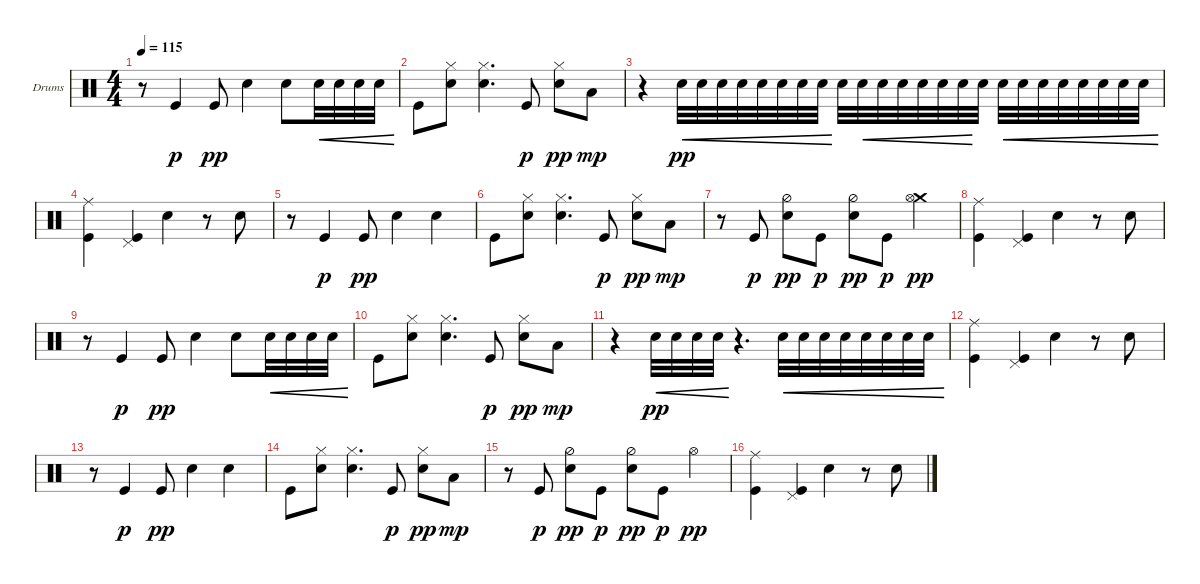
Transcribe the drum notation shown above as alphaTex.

\defaultSystemsLayout 4
\bracketExtendMode groupsimilarinstruments
\firstSystemTrackNameOrientation horizontal
\otherSystemsTrackNameOrientation horizontal
\track ("Drumkit" "Drums") {instrument percussion}
\staff {score}
\articulation defaults
\ts (4 4)
\tempo 115
\clef neutral
\ks c
r.8{dy pp} "Kick (hit)".4{dy p} "Kick (hit)".8{dy pp} "Snare (hit) 2".4 "Snare (hit) 2".8 "Snare (hit) 2".32{cre} "Snare (hit) 2".32{cre} "Snare (hit) 2".32{cre} "Snare (hit) 2".32{cre} |
"Kick (hit)".8 ("Snare (hit) 2" "Hi-Hat (closed)").8 ("Snare (hit) 2" "Hi-Hat (closed)").4{d} "Kick (hit)".8{dy p} ("Snare (hit) 2" "Hi-Hat (closed)").8{dy pp} "Low Tom (hit)".8{dy mp} |
r.4 "Snare (hit) 2".32{cre dy pp} "Snare (hit) 2".32{cre} "Snare (hit) 2".32{cre} "Snare (hit) 2".32{cre} "Snare (hit) 2".32{cre} "Snare (hit) 2".32{cre} "Snare (hit) 2".32{cre} "Snare (hit) 2".32{cre} "Snare (hit) 2".32 "Snare (hit) 2".32{cre} "Snare (hit) 2".32{cre} "Snare (hit) 2".32{cre} "Snare (hit) 2".32{cre} "Snare (hit) 2".32{cre} "Snare (hit) 2".32{cre} "Snare (hit) 2".32 "Snare (hit) 2".32{cre} "Snare (hit) 2".32{cre} "Snare (hit) 2".32{cre} "Snare (hit) 2".32{cre} "Snare (hit) 2".32{cre} "Snare (hit) 2".32{cre} "Snare (hit) 2".32{cre} "Snare (hit) 2".32{cre} |
("Kick (hit)" "Ride (middle)").4 ("Kick (hit)" "Pedal Hi-Hat (hit)").4 "Snare (hit) 2".4 r.8 "Snare (hit) 2".8 |
r.8 "Kick (hit)".4{dy p} "Kick (hit)".8{dy pp} "Snare (hit) 2".4 "Snare (hit) 2".4 |
"Kick (hit)".8 ("Snare (hit) 2" "Hi-Hat (closed)").8 ("Snare (hit) 2" "Hi-Hat (closed)").4{d} "Kick (hit)".8{dy p} ("Snare (hit) 2" "Hi-Hat (closed)").8{dy pp} "Low Tom (hit)".8{dy mp} |
r.8 "Kick (hit)".8{dy p} ("Snare (hit) 2" "Hi-Hat (half)").8{dy pp} "Kick (hit)".8{dy p} ("Snare (hit) 2" "Hi-Hat (half)").8{dy pp} "Kick (hit)".8{dy p} ("Crash medium (hit)" "Hi-Hat (open)").4{dy pp} |
("Kick (hit)" "Ride (middle)").4 ("Kick (hit)" "Pedal Hi-Hat (hit)").4 "Snare (hit) 2".4 r.8 "Snare (hit) 2".8 |
r.8 "Kick (hit)".4{dy p} "Kick (hit)".8{dy pp} "Snare (hit) 2".4 "Snare (hit) 2".8 "Snare (hit) 2".32{cre} "Snare (hit) 2".32{cre} "Snare (hit) 2".32{cre} "Snare (hit) 2".32{cre} |
"Kick (hit)".8 ("Snare (hit) 2" "Hi-Hat (closed)").8 ("Snare (hit) 2" "Hi-Hat (closed)").4{d} "Kick (hit)".8{dy p} ("Snare (hit) 2" "Hi-Hat (closed)").8{dy pp} "Low Tom (hit)".8{dy mp} |
r.4 "Snare (hit) 2".32{cre dy pp} "Snare (hit) 2".32{cre} "Snare (hit) 2".32{cre} "Snare (hit) 2".32{cre} r.4{d} "Snare (hit) 2".32{cre} "Snare (hit) 2".32{cre} "Snare (hit) 2".32{cre} "Snare (hit) 2".32{cre} "Snare (hit) 2".32{cre} "Snare (hit) 2".32{cre} "Snare (hit) 2".32{cre} "Snare (hit) 2".32{cre} |
("Kick (hit)" "Ride (middle)").4 ("Kick (hit)" "Pedal Hi-Hat (hit)").4 "Snare (hit) 2".4 r.8 "Snare (hit) 2".8 |
r.8 "Kick (hit)".4{dy p} "Kick (hit)".8{dy pp} "Snare (hit) 2".4 "Snare (hit) 2".4 |
"Kick (hit)".8 ("Snare (hit) 2" "Hi-Hat (closed)").8 ("Snare (hit) 2" "Hi-Hat (closed)").4{d} "Kick (hit)".8{dy p} ("Snare (hit) 2" "Hi-Hat (closed)").8{dy pp} "Low Tom (hit)".8{dy mp} |
r.8 "Kick (hit)".8{dy p} ("Snare (hit) 2" "Hi-Hat (half)").8{dy pp} "Kick (hit)".8{dy p} ("Snare (hit) 2" "Hi-Hat (half)").8{dy pp} "Kick (hit)".8{dy p} "Hi-Hat (open)".4{dy pp} |
("Kick (hit)" "Ride (middle)").4 ("Kick (hit)" "Pedal Hi-Hat (hit)").4 "Snare (hit) 2".4 r.8 "Snare (hit) 2".8
